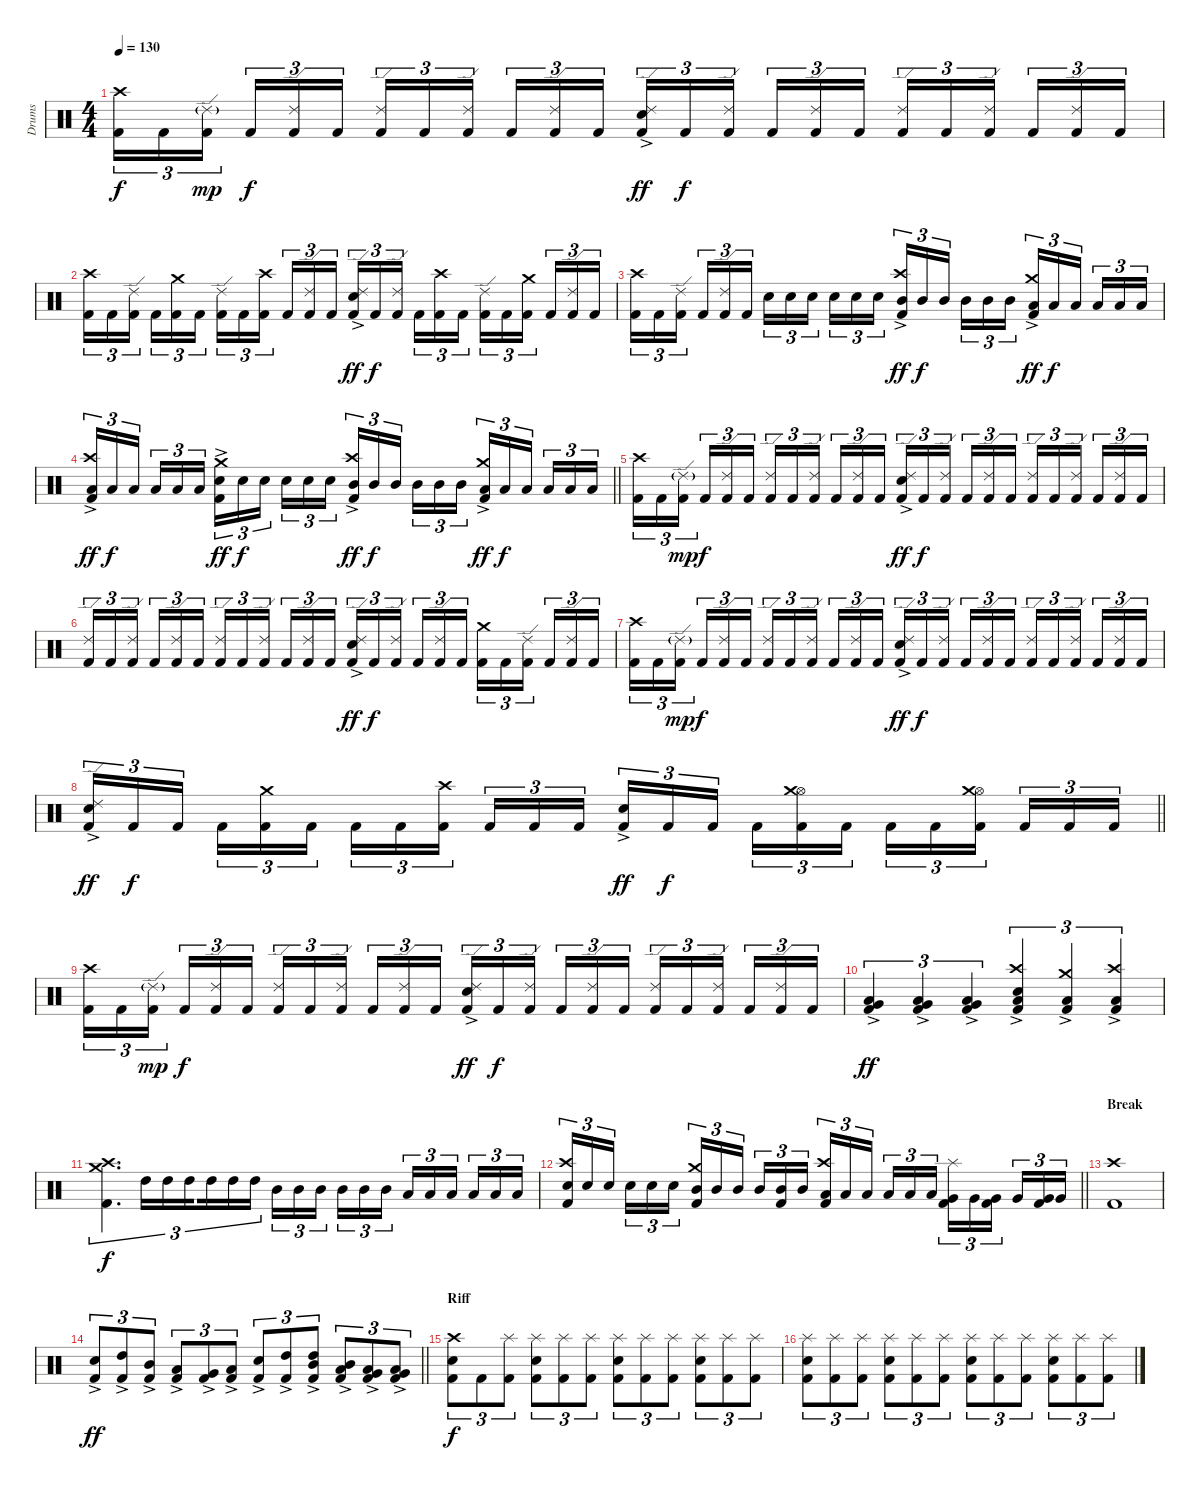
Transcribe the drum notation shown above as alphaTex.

\track ("Drums" "Drums") {instrument percussion}
\staff {score}
\articulation defaults
\ts (4 4)
\section ("" "")
\tempo 130
\clef neutral
\ks c
("Kick (hit) 2" "Crash high (hit)").16{tu (3 2) dy f} "Kick (hit) 2".16{tu (3 2)} ("Kick (hit) 2" "Ride (edge) 2"{g}).16{tu (3 2) dy mp beam splitsecondary} "Kick (hit) 2".16{tu (3 2) dy f} ("Kick (hit) 2" "Ride (edge) 2").16{tu (3 2)} "Kick (hit) 2".16{tu (3 2)} ("Kick (hit) 2" "Ride (edge) 2").16{tu (3 2)} "Kick (hit) 2".16{tu (3 2)} ("Kick (hit) 2" "Ride (edge) 2").16{tu (3 2) beam splitsecondary} "Kick (hit) 2".16{tu (3 2)} ("Kick (hit) 2" "Ride (edge) 2").16{tu (3 2)} "Kick (hit) 2".16{tu (3 2)} ("Kick (hit) 2" "Snare (hit) 2"{ac} "Ride (edge) 2").16{tu (3 2) dy ff} "Kick (hit) 2".16{tu (3 2) dy f} ("Kick (hit) 2" "Ride (edge) 2").16{tu (3 2) beam splitsecondary} "Kick (hit) 2".16{tu (3 2)} ("Kick (hit) 2" "Ride (edge) 2").16{tu (3 2)} "Kick (hit) 2".16{tu (3 2)} ("Kick (hit) 2" "Ride (edge) 2").16{tu (3 2)} "Kick (hit) 2".16{tu (3 2)} ("Kick (hit) 2" "Ride (edge) 2").16{tu (3 2) beam splitsecondary} "Kick (hit) 2".16{tu (3 2)} ("Kick (hit) 2" "Ride (edge) 2").16{tu (3 2)} "Kick (hit) 2".16{tu (3 2)} |
("Kick (hit) 2" "Crash high (hit)").16{tu (3 2)} "Kick (hit) 2".16{tu (3 2)} ("Kick (hit) 2" "Ride (edge) 2").16{tu (3 2) beam splitsecondary} "Kick (hit) 2".16{tu (3 2)} ("Kick (hit) 2" "Crash medium (hit)").16{tu (3 2)} "Kick (hit) 2".16{tu (3 2)} ("Kick (hit) 2" "Ride (edge) 2").16{tu (3 2)} "Kick (hit) 2".16{tu (3 2)} ("Kick (hit) 2" "Crash high (hit)").16{tu (3 2) beam splitsecondary} "Kick (hit) 2".16{tu (3 2)} ("Kick (hit) 2" "Ride (edge) 2").16{tu (3 2)} "Kick (hit) 2".16{tu (3 2)} ("Kick (hit) 2" "Snare (hit) 2"{ac} "Ride (edge) 2").16{tu (3 2) dy ff} "Kick (hit) 2".16{tu (3 2) dy f} ("Kick (hit) 2" "Ride (edge) 2").16{tu (3 2) beam splitsecondary} "Kick (hit) 2".16{tu (3 2)} ("Kick (hit) 2" "Crash high (hit)").16{tu (3 2)} "Kick (hit) 2".16{tu (3 2)} ("Kick (hit) 2" "Ride (edge) 2").16{tu (3 2)} "Kick (hit) 2".16{tu (3 2)} ("Kick (hit) 2" "Crash medium (hit)").16{tu (3 2) beam splitsecondary} "Kick (hit) 2".16{tu (3 2)} ("Kick (hit) 2" "Ride (edge) 2").16{tu (3 2)} "Kick (hit) 2".16{tu (3 2)} |
("Kick (hit) 2" "Crash high (hit)").16{tu (3 2)} "Kick (hit) 2".16{tu (3 2)} ("Kick (hit) 2" "Ride (edge) 2").16{tu (3 2) beam splitsecondary} "Kick (hit) 2".16{tu (3 2)} ("Kick (hit) 2" "Ride (edge) 2").16{tu (3 2)} "Kick (hit) 2".16{tu (3 2)} "Snare (hit) 2".16{tu (3 2)} "Snare (hit) 2".16{tu (3 2)} "Snare (hit) 2".16{tu (3 2) beam splitsecondary} "Snare (hit) 2".16{tu (3 2)} "Snare (hit) 2".16{tu (3 2)} "Snare (hit) 2".16{tu (3 2)} ("Kick (hit) 2"{ac} "Mid Tom (hit)" "Crash high (hit)").16{tu (3 2) dy ff} "Mid Tom (hit)".16{tu (3 2) dy f} "Mid Tom (hit)".16{tu (3 2) beam splitsecondary} "Mid Tom (hit)".16{tu (3 2)} "Mid Tom (hit)".16{tu (3 2)} "Mid Tom (hit)".16{tu (3 2)} ("Kick (hit) 2"{ac} "Low Tom (hit)" "Crash medium (hit)").16{tu (3 2) dy ff} "Low Tom (hit)".16{tu (3 2) dy f} "Low Tom (hit)".16{tu (3 2) beam splitsecondary} "Low Tom (hit)".16{tu (3 2)} "Low Tom (hit)".16{tu (3 2)} "Low Tom (hit)".16{tu (3 2)} |
\barLineRight lightlight
("Kick (hit) 2"{ac} "Low Tom (hit)" "Crash high (hit)").16{tu (3 2) dy ff} "Low Tom (hit)".16{tu (3 2) dy f} "Low Tom (hit)".16{tu (3 2) beam splitsecondary} "Low Tom (hit)".16{tu (3 2)} "Low Tom (hit)".16{tu (3 2)} "Low Tom (hit)".16{tu (3 2)} ("Kick (hit) 2"{ac} "Snare (hit) 2" "Crash medium (hit)").16{tu (3 2) dy ff} "Snare (hit) 2".16{tu (3 2) dy f} "Snare (hit) 2".16{tu (3 2) beam splitsecondary} "Snare (hit) 2".16{tu (3 2)} "Snare (hit) 2".16{tu (3 2)} "Snare (hit) 2".16{tu (3 2)} ("Kick (hit) 2"{ac} "Mid Tom (hit)" "Crash high (hit)").16{tu (3 2) dy ff} "Mid Tom (hit)".16{tu (3 2) dy f} "Mid Tom (hit)".16{tu (3 2) beam splitsecondary} "Mid Tom (hit)".16{tu (3 2)} "Mid Tom (hit)".16{tu (3 2)} "Mid Tom (hit)".16{tu (3 2)} ("Kick (hit) 2"{ac} "Low Tom (hit)" "Crash medium (hit)").16{tu (3 2) dy ff} "Low Tom (hit)".16{tu (3 2) dy f} "Low Tom (hit)".16{tu (3 2) beam splitsecondary} "Low Tom (hit)".16{tu (3 2)} "Low Tom (hit)".16{tu (3 2)} "Low Tom (hit)".16{tu (3 2)} |
\section ("" "")
("Kick (hit) 2" "Crash high (hit)").16{tu (3 2)} "Kick (hit) 2".16{tu (3 2)} ("Kick (hit) 2" "Ride (edge) 2"{g}).16{tu (3 2) dy mp beam splitsecondary} "Kick (hit) 2".16{tu (3 2) dy f} ("Kick (hit) 2" "Ride (edge) 2").16{tu (3 2)} "Kick (hit) 2".16{tu (3 2)} ("Kick (hit) 2" "Ride (edge) 2").16{tu (3 2)} "Kick (hit) 2".16{tu (3 2)} ("Kick (hit) 2" "Ride (edge) 2").16{tu (3 2) beam splitsecondary} "Kick (hit) 2".16{tu (3 2)} ("Kick (hit) 2" "Ride (edge) 2").16{tu (3 2)} "Kick (hit) 2".16{tu (3 2)} ("Kick (hit) 2" "Snare (hit) 2"{ac} "Ride (edge) 2").16{tu (3 2) dy ff} "Kick (hit) 2".16{tu (3 2) dy f} ("Kick (hit) 2" "Ride (edge) 2").16{tu (3 2) beam splitsecondary} "Kick (hit) 2".16{tu (3 2)} ("Kick (hit) 2" "Ride (edge) 2").16{tu (3 2)} "Kick (hit) 2".16{tu (3 2)} ("Kick (hit) 2" "Ride (edge) 2").16{tu (3 2)} "Kick (hit) 2".16{tu (3 2)} ("Kick (hit) 2" "Ride (edge) 2").16{tu (3 2) beam splitsecondary} "Kick (hit) 2".16{tu (3 2)} ("Kick (hit) 2" "Ride (edge) 2").16{tu (3 2)} "Kick (hit) 2".16{tu (3 2)} |
("Kick (hit) 2" "Ride (edge) 2").16{tu (3 2)} "Kick (hit) 2".16{tu (3 2)} ("Kick (hit) 2" "Ride (edge) 2").16{tu (3 2) beam splitsecondary} "Kick (hit) 2".16{tu (3 2)} ("Kick (hit) 2" "Ride (edge) 2").16{tu (3 2)} "Kick (hit) 2".16{tu (3 2)} ("Kick (hit) 2" "Ride (edge) 2").16{tu (3 2)} "Kick (hit) 2".16{tu (3 2)} ("Kick (hit) 2" "Ride (edge) 2").16{tu (3 2) beam splitsecondary} "Kick (hit) 2".16{tu (3 2)} ("Kick (hit) 2" "Ride (edge) 2").16{tu (3 2)} "Kick (hit) 2".16{tu (3 2)} ("Kick (hit) 2" "Snare (hit) 2"{ac} "Ride (edge) 2").16{tu (3 2) dy ff} "Kick (hit) 2".16{tu (3 2) dy f} ("Kick (hit) 2" "Ride (edge) 2").16{tu (3 2) beam splitsecondary} "Kick (hit) 2".16{tu (3 2)} ("Kick (hit) 2" "Ride (edge) 2").16{tu (3 2)} "Kick (hit) 2".16{tu (3 2)} ("Kick (hit) 2" "Crash medium (hit)").16{tu (3 2)} "Kick (hit) 2".16{tu (3 2)} ("Kick (hit) 2" "Ride (edge) 2").16{tu (3 2) beam splitsecondary} "Kick (hit) 2".16{tu (3 2)} ("Kick (hit) 2" "Ride (edge) 2").16{tu (3 2)} "Kick (hit) 2".16{tu (3 2)} |
("Kick (hit) 2" "Crash high (hit)").16{tu (3 2)} "Kick (hit) 2".16{tu (3 2)} ("Kick (hit) 2" "Ride (edge) 2"{g}).16{tu (3 2) dy mp beam splitsecondary} "Kick (hit) 2".16{tu (3 2) dy f} ("Kick (hit) 2" "Ride (edge) 2").16{tu (3 2)} "Kick (hit) 2".16{tu (3 2)} ("Kick (hit) 2" "Ride (edge) 2").16{tu (3 2)} "Kick (hit) 2".16{tu (3 2)} ("Kick (hit) 2" "Ride (edge) 2").16{tu (3 2) beam splitsecondary} "Kick (hit) 2".16{tu (3 2)} ("Kick (hit) 2" "Ride (edge) 2").16{tu (3 2)} "Kick (hit) 2".16{tu (3 2)} ("Kick (hit) 2" "Snare (hit) 2"{ac} "Ride (edge) 2").16{tu (3 2) dy ff} "Kick (hit) 2".16{tu (3 2) dy f} ("Kick (hit) 2" "Ride (edge) 2").16{tu (3 2) beam splitsecondary} "Kick (hit) 2".16{tu (3 2)} ("Kick (hit) 2" "Ride (edge) 2").16{tu (3 2)} "Kick (hit) 2".16{tu (3 2)} ("Kick (hit) 2" "Ride (edge) 2").16{tu (3 2)} "Kick (hit) 2".16{tu (3 2)} ("Kick (hit) 2" "Ride (edge) 2").16{tu (3 2) beam splitsecondary} "Kick (hit) 2".16{tu (3 2)} ("Kick (hit) 2" "Ride (edge) 2").16{tu (3 2)} "Kick (hit) 2".16{tu (3 2)} |
\barLineRight lightlight
("Kick (hit) 2" "Snare (hit) 2"{ac} "Ride (edge) 2").16{tu (3 2) dy ff} "Kick (hit) 2".16{tu (3 2) dy f} "Kick (hit) 2".16{tu (3 2) beam splitsecondary} "Kick (hit) 2".16{tu (3 2)} ("Kick (hit) 2" "Crash medium (hit)").16{tu (3 2)} "Kick (hit) 2".16{tu (3 2)} "Kick (hit) 2".16{tu (3 2)} "Kick (hit) 2".16{tu (3 2)} ("Kick (hit) 2" "Crash high (hit)").16{tu (3 2) beam splitsecondary} "Kick (hit) 2".16{tu (3 2)} "Kick (hit) 2".16{tu (3 2)} "Kick (hit) 2".16{tu (3 2)} ("Kick (hit) 2" "Snare (hit) 2"{ac}).16{tu (3 2) dy ff} "Kick (hit) 2".16{tu (3 2) dy f} "Kick (hit) 2".16{tu (3 2) beam splitsecondary} "Kick (hit) 2".16{tu (3 2)} ("Kick (hit) 2" "Hi-Hat (open)" "Crash medium (hit)").16{tu (3 2)} "Kick (hit) 2".16{tu (3 2)} "Kick (hit) 2".16{tu (3 2)} "Kick (hit) 2".16{tu (3 2)} ("Kick (hit) 2" "Hi-Hat (open)" "Crash medium (hit)").16{tu (3 2) beam splitsecondary} "Kick (hit) 2".16{tu (3 2)} "Kick (hit) 2".16{tu (3 2)} "Kick (hit) 2".16{tu (3 2)} |
\section ("" "")
("Kick (hit) 2" "Crash high (hit)").16{tu (3 2)} "Kick (hit) 2".16{tu (3 2)} ("Kick (hit) 2" "Ride (edge) 2"{g}).16{tu (3 2) dy mp beam splitsecondary} "Kick (hit) 2".16{tu (3 2) dy f} ("Kick (hit) 2" "Ride (edge) 2").16{tu (3 2)} "Kick (hit) 2".16{tu (3 2)} ("Kick (hit) 2" "Ride (edge) 2").16{tu (3 2)} "Kick (hit) 2".16{tu (3 2)} ("Kick (hit) 2" "Ride (edge) 2").16{tu (3 2) beam splitsecondary} "Kick (hit) 2".16{tu (3 2)} ("Kick (hit) 2" "Ride (edge) 2").16{tu (3 2)} "Kick (hit) 2".16{tu (3 2)} ("Kick (hit) 2" "Snare (hit) 2"{ac} "Ride (edge) 2").16{tu (3 2) dy ff} "Kick (hit) 2".16{tu (3 2) dy f} ("Kick (hit) 2" "Ride (edge) 2").16{tu (3 2) beam splitsecondary} "Kick (hit) 2".16{tu (3 2)} ("Kick (hit) 2" "Ride (edge) 2").16{tu (3 2)} "Kick (hit) 2".16{tu (3 2)} ("Kick (hit) 2" "Ride (edge) 2").16{tu (3 2)} "Kick (hit) 2".16{tu (3 2)} ("Kick (hit) 2" "Ride (edge) 2").16{tu (3 2) beam splitsecondary} "Kick (hit) 2".16{tu (3 2)} ("Kick (hit) 2" "Ride (edge) 2").16{tu (3 2)} "Kick (hit) 2".16{tu (3 2)} |
("Kick (hit) 2" "Low Floor Tom (hit)" "Very Low Tom (hit)"{ac}).4{tu (3 2) dy ff} ("Kick (hit) 2" "Low Floor Tom (hit)" "Very Low Tom (hit)"{ac}).4{tu (3 2)} ("Kick (hit) 2" "Low Floor Tom (hit)" "Very Low Tom (hit)"{ac}).4{tu (3 2)} ("Kick (hit) 2" "Snare (hit) 2"{ac} "Low Floor Tom (hit)"{ac} "Crash high (hit)").4{tu (3 2)} ("Kick (hit) 2" "Low Floor Tom (hit)"{ac} "Crash medium (hit)").4{tu (3 2)} ("Kick (hit) 2" "Low Floor Tom (hit)"{ac} "Crash high (hit)").4{tu (3 2)} |
("Kick (hit) 2" "Crash medium (hit)" "Crash high (hit)").4{d tu (3 2) dy f} "High Tom (hit)".16{tu (3 2)} "High Tom (hit)".16{tu (3 2)} "High Tom (hit)".16{tu (3 2) beam splitsecondary} "High Tom (hit)".16{tu (3 2)} "High Tom (hit)".16{tu (3 2)} "High Tom (hit)".16{tu (3 2)} "Mid Tom (hit)".16{tu (3 2)} "Mid Tom (hit)".16{tu (3 2)} "Mid Tom (hit)".16{tu (3 2) beam splitsecondary} "Mid Tom (hit)".16{tu (3 2)} "Mid Tom (hit)".16{tu (3 2)} "Mid Tom (hit)".16{tu (3 2)} "Low Tom (hit)".16{tu (3 2)} "Low Tom (hit)".16{tu (3 2)} "Low Tom (hit)".16{tu (3 2) beam splitsecondary} "Low Tom (hit)".16{tu (3 2)} "Low Tom (hit)".16{tu (3 2)} "Low Tom (hit)".16{tu (3 2)} |
\barLineRight lightlight
("Kick (hit) 2" "Snare (hit) 2" "Crash high (hit)").16{tu (3 2)} "Snare (hit) 2".16{tu (3 2)} "Snare (hit) 2".16{tu (3 2) beam splitsecondary} "Snare (hit) 2".16{tu (3 2)} "Snare (hit) 2".16{tu (3 2)} "Snare (hit) 2".16{tu (3 2)} ("Kick (hit) 2" "Mid Tom (hit)" "Crash medium (hit)").16{tu (3 2)} "Mid Tom (hit)".16{tu (3 2)} "Mid Tom (hit)".16{tu (3 2) beam splitsecondary} "Mid Tom (hit)".16{tu (3 2)} ("Kick (hit) 2" "Mid Tom (hit)").16{tu (3 2)} "Mid Tom (hit)".16{tu (3 2)} ("Kick (hit) 2" "Low Tom (hit)" "Crash high (hit)").16{tu (3 2)} "Low Tom (hit)".16{tu (3 2)} "Low Tom (hit)".16{tu (3 2) beam splitsecondary} "Low Tom (hit)".16{tu (3 2)} "Low Tom (hit)".16{tu (3 2)} "Low Tom (hit)".16{tu (3 2)} ("Kick (hit) 2" "Very Low Tom (hit)" "Splash (hit)").16{tu (3 2)} "Very Low Tom (hit)".16{tu (3 2)} ("Kick (hit) 2" "Very Low Tom (hit)").16{tu (3 2) beam splitsecondary} "Very Low Tom (hit)".16{tu (3 2)} ("Kick (hit) 2" "Very Low Tom (hit)").16{tu (3 2)} "Very Low Tom (hit)".16{tu (3 2)} |
\section ("" "Break")
("Kick (hit) 2" "Crash high (hit)").1 |
\barLineRight lightlight
("Kick (hit) 2" "Snare (hit) 2"{ac}).8{tu (3 2) dy ff} ("Kick (hit) 2" "High Tom (hit)"{ac}).8{tu (3 2)} ("Kick (hit) 2" "Mid Tom (hit)"{ac}).8{tu (3 2)} ("Kick (hit) 2" "Low Tom (hit)"{ac}).8{tu (3 2)} ("Kick (hit) 2" "Very Low Tom (hit)"{ac}).8{tu (3 2)} ("Kick (hit) 2" "Low Floor Tom (hit)"{ac}).8{tu (3 2)} ("Kick (hit) 2" "Snare (hit) 2"{ac}).8{tu (3 2)} ("Kick (hit) 2" "High Tom (hit)"{ac}).8{tu (3 2)} ("Kick (hit) 2" "Mid Tom (hit)"{ac} "High Tom (hit)").8{tu (3 2)} ("Kick (hit) 2" "Low Tom (hit)"{ac} "Mid Tom (hit)").8{tu (3 2)} ("Kick (hit) 2" "Very Low Tom (hit)"{ac} "Low Tom (hit)").8{tu (3 2)} ("Kick (hit) 2" "Low Floor Tom (hit)"{ac} "Very Low Tom (hit)").8{tu (3 2)} |
\section ("" "Riff")
("Kick (hit) 2" "Snare (hit) 2" "Crash high (hit)").8{tu (3 2) dy f} "Kick (hit) 2".8{tu (3 2)} ("Kick (hit) 2" "Splash (hit)").8{tu (3 2)} ("Kick (hit) 2" "Snare (hit) 2" "Splash (hit)").8{tu (3 2)} ("Kick (hit) 2" "Splash (hit)").8{tu (3 2)} ("Kick (hit) 2" "Splash (hit)").8{tu (3 2)} ("Kick (hit) 2" "Snare (hit) 2" "Splash (hit)").8{tu (3 2)} ("Kick (hit) 2" "Splash (hit)").8{tu (3 2)} ("Kick (hit) 2" "Splash (hit)").8{tu (3 2)} ("Kick (hit) 2" "Snare (hit) 2" "Splash (hit)").8{tu (3 2)} ("Kick (hit) 2" "Splash (hit)").8{tu (3 2)} ("Kick (hit) 2" "Splash (hit)").8{tu (3 2)} |
("Kick (hit) 2" "Snare (hit) 2" "Splash (hit)").8{tu (3 2)} ("Kick (hit) 2" "Splash (hit)").8{tu (3 2)} ("Kick (hit) 2" "Splash (hit)").8{tu (3 2)} ("Kick (hit) 2" "Snare (hit) 2" "Splash (hit)").8{tu (3 2)} ("Kick (hit) 2" "Splash (hit)").8{tu (3 2)} ("Kick (hit) 2" "Splash (hit)").8{tu (3 2)} ("Kick (hit) 2" "Snare (hit) 2" "Splash (hit)").8{tu (3 2)} ("Kick (hit) 2" "Splash (hit)").8{tu (3 2)} ("Kick (hit) 2" "Splash (hit)").8{tu (3 2)} ("Kick (hit) 2" "Snare (hit) 2" "Splash (hit)").8{tu (3 2)} ("Kick (hit) 2" "Splash (hit)").8{tu (3 2)} ("Kick (hit) 2" "Splash (hit)").8{tu (3 2)}
